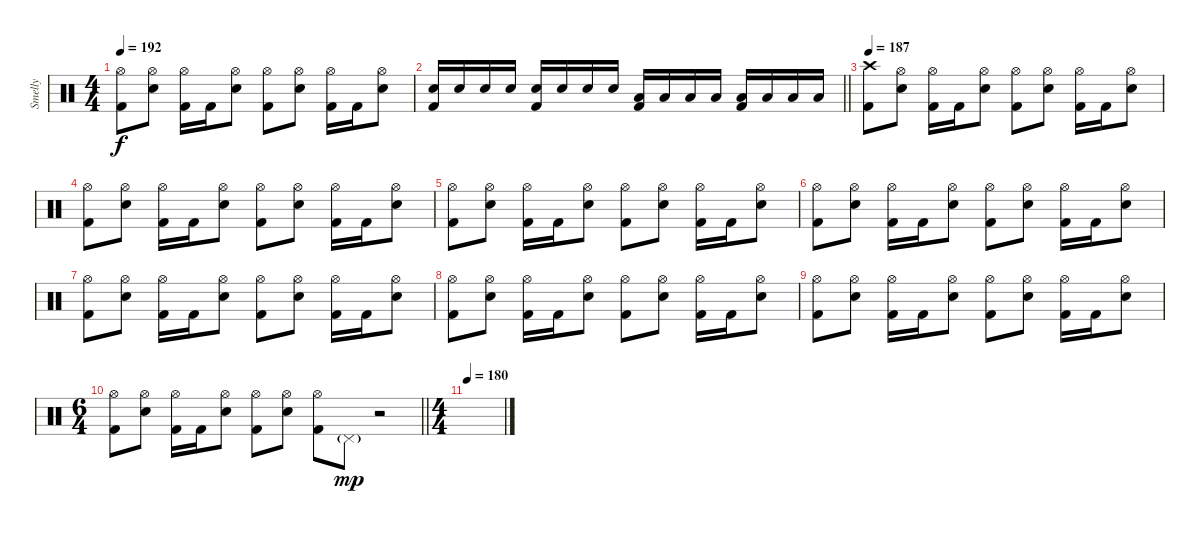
\track ("Smelly" "Smelly") {instrument percussion}
\staff {score}
\articulation defaults
\ts (4 4)
\tempo 192
\clef neutral
\ks c
("Hi-Hat (open)" "Kick (hit) 2").8{dy f} ("Hi-Hat (open)" "Electric Snare (hit)").8 ("Hi-Hat (open)" "Kick (hit) 2").16 "Kick (hit) 2".16 ("Hi-Hat (open)" "Electric Snare (hit)").8 ("Hi-Hat (open)" "Kick (hit) 2").8 ("Hi-Hat (open)" "Electric Snare (hit)").8 ("Hi-Hat (open)" "Kick (hit) 2").16 "Kick (hit) 2".16 ("Hi-Hat (open)" "Electric Snare (hit)").8 |
\barLineRight lightlight
("Electric Snare (hit)" "Kick (hit) 2").16 "Electric Snare (hit)".16 "Electric Snare (hit)".16 "Electric Snare (hit)".16 ("Electric Snare (hit)" "Kick (hit) 2").16 "Electric Snare (hit)".16 "Electric Snare (hit)".16 "Electric Snare (hit)".16 ("Low Tom (hit)" "Kick (hit) 2").16 "Low Tom (hit)".16 "Low Tom (hit)".16 "Low Tom (hit)".16 ("Low Floor Tom (hit)" "Kick (hit) 2").16 "Low Floor Tom (hit)".16 "Low Floor Tom (hit)".16 "Low Floor Tom (hit)".16 |
\section ("" "")
\tempo 187
("Crash high (hit)" "Kick (hit) 2").8 ("Hi-Hat (open)" "Electric Snare (hit)").8 ("Hi-Hat (open)" "Kick (hit) 2").16 "Kick (hit) 2".16 ("Hi-Hat (open)" "Electric Snare (hit)").8 ("Hi-Hat (open)" "Kick (hit) 2").8 ("Hi-Hat (open)" "Electric Snare (hit)").8 ("Hi-Hat (open)" "Kick (hit) 2").16 "Kick (hit) 2".16 ("Hi-Hat (open)" "Electric Snare (hit)").8 |
("Hi-Hat (open)" "Kick (hit) 2").8 ("Hi-Hat (open)" "Electric Snare (hit)").8 ("Hi-Hat (open)" "Kick (hit) 2").16 "Kick (hit) 2".16 ("Hi-Hat (open)" "Electric Snare (hit)").8 ("Hi-Hat (open)" "Kick (hit) 2").8 ("Hi-Hat (open)" "Electric Snare (hit)").8 ("Hi-Hat (open)" "Kick (hit) 2").16 "Kick (hit) 2".16 ("Hi-Hat (open)" "Electric Snare (hit)").8 |
("Hi-Hat (open)" "Kick (hit) 2").8 ("Hi-Hat (open)" "Electric Snare (hit)").8 ("Hi-Hat (open)" "Kick (hit) 2").16 "Kick (hit) 2".16 ("Hi-Hat (open)" "Electric Snare (hit)").8 ("Hi-Hat (open)" "Kick (hit) 2").8 ("Hi-Hat (open)" "Electric Snare (hit)").8 ("Hi-Hat (open)" "Kick (hit) 2").16 "Kick (hit) 2".16 ("Hi-Hat (open)" "Electric Snare (hit)").8 |
("Hi-Hat (open)" "Kick (hit) 2").8 ("Hi-Hat (open)" "Electric Snare (hit)").8 ("Hi-Hat (open)" "Kick (hit) 2").16 "Kick (hit) 2".16 ("Hi-Hat (open)" "Electric Snare (hit)").8 ("Hi-Hat (open)" "Kick (hit) 2").8 ("Hi-Hat (open)" "Electric Snare (hit)").8 ("Hi-Hat (open)" "Kick (hit) 2").16 "Kick (hit) 2".16 ("Hi-Hat (open)" "Electric Snare (hit)").8 |
("Hi-Hat (open)" "Kick (hit) 2").8 ("Hi-Hat (open)" "Electric Snare (hit)").8 ("Hi-Hat (open)" "Kick (hit) 2").16 "Kick (hit) 2".16 ("Hi-Hat (open)" "Electric Snare (hit)").8 ("Hi-Hat (open)" "Kick (hit) 2").8 ("Hi-Hat (open)" "Electric Snare (hit)").8 ("Hi-Hat (open)" "Kick (hit) 2").16 "Kick (hit) 2".16 ("Hi-Hat (open)" "Electric Snare (hit)").8 |
("Hi-Hat (open)" "Kick (hit) 2").8 ("Hi-Hat (open)" "Electric Snare (hit)").8 ("Hi-Hat (open)" "Kick (hit) 2").16 "Kick (hit) 2".16 ("Hi-Hat (open)" "Electric Snare (hit)").8 ("Hi-Hat (open)" "Kick (hit) 2").8 ("Hi-Hat (open)" "Electric Snare (hit)").8 ("Hi-Hat (open)" "Kick (hit) 2").16 "Kick (hit) 2".16 ("Hi-Hat (open)" "Electric Snare (hit)").8 |
("Hi-Hat (open)" "Kick (hit) 2").8 ("Hi-Hat (open)" "Electric Snare (hit)").8 ("Hi-Hat (open)" "Kick (hit) 2").16 "Kick (hit) 2".16 ("Hi-Hat (open)" "Electric Snare (hit)").8 ("Hi-Hat (open)" "Kick (hit) 2").8 ("Hi-Hat (open)" "Electric Snare (hit)").8 ("Hi-Hat (open)" "Kick (hit) 2").16 "Kick (hit) 2".16 ("Hi-Hat (open)" "Electric Snare (hit)").8 |
\ts (6 4)
\barLineRight lightlight
("Hi-Hat (open)" "Kick (hit) 2").8 ("Hi-Hat (open)" "Electric Snare (hit)").8 ("Hi-Hat (open)" "Kick (hit) 2").16 "Kick (hit) 2".16 ("Hi-Hat (open)" "Electric Snare (hit)").8 ("Hi-Hat (open)" "Kick (hit) 2").8 ("Hi-Hat (open)" "Electric Snare (hit)").8 ("Hi-Hat (open)" "Kick (hit) 2").8 "Pedal Hi-Hat (hit)"{g}.8{dy mp} r.2 |
\ts (4 4)
\tempo 180
